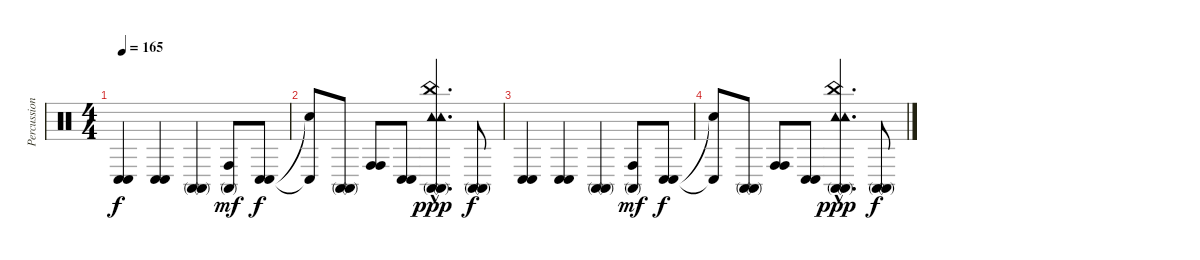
\track ("Percussion" "Percussion") {instrument percussion}
\staff {score}
\articulation defaults
\ts (4 4)
\tempo 165
\clef neutral
\ks c
("Conga low (hit)" "Conga low (hit)").4{dy f volume 8} ("Conga low (hit)" "Conga low (hit)").4 ("Conga high (mute)" "Conga high (mute)").4 ("Conga high (hit)" "Conga high (mute)").8{dy mf} ("Conga low (hit)" "Conga low (hit)").8{dy f} |
("Conga low (hit)"{t} "Snare (hit)"{t}).8{volume 4} ("Conga high (mute)" "Conga high (mute)").8 ("Conga high (hit)" "Conga high (hit)").8 ("Conga low (hit)" "Conga low (hit)").8 ("Conga high (mute)"{hac} "Conga high (mute)"{hac} "Tambourine (hit)"{hac} "Tambourine (hit)"{hac} "China (hit)"{hac}).4{d dy ppp} ("Conga high (mute)" "Conga high (mute)").8{dy f} |
("Conga low (hit)" "Conga low (hit)").4{volume 0} ("Conga low (hit)" "Conga low (hit)").4 ("Conga high (mute)" "Conga high (mute)").4 ("Conga high (hit)" "Conga high (mute)").8{dy mf} ("Conga low (hit)" "Conga low (hit)").8{dy f} |
("Conga low (hit)"{t} "Snare (hit)"{t}).8 ("Conga high (mute)" "Conga high (mute)").8 ("Conga high (hit)" "Conga high (hit)").8 ("Conga low (hit)" "Conga low (hit)").8 ("Conga high (mute)"{hac} "Conga high (mute)"{hac} "Tambourine (hit)"{hac} "Tambourine (hit)"{hac} "China (hit)"{hac}).4{d dy ppp} ("Conga high (mute)" "Conga high (mute)").8{dy f}
